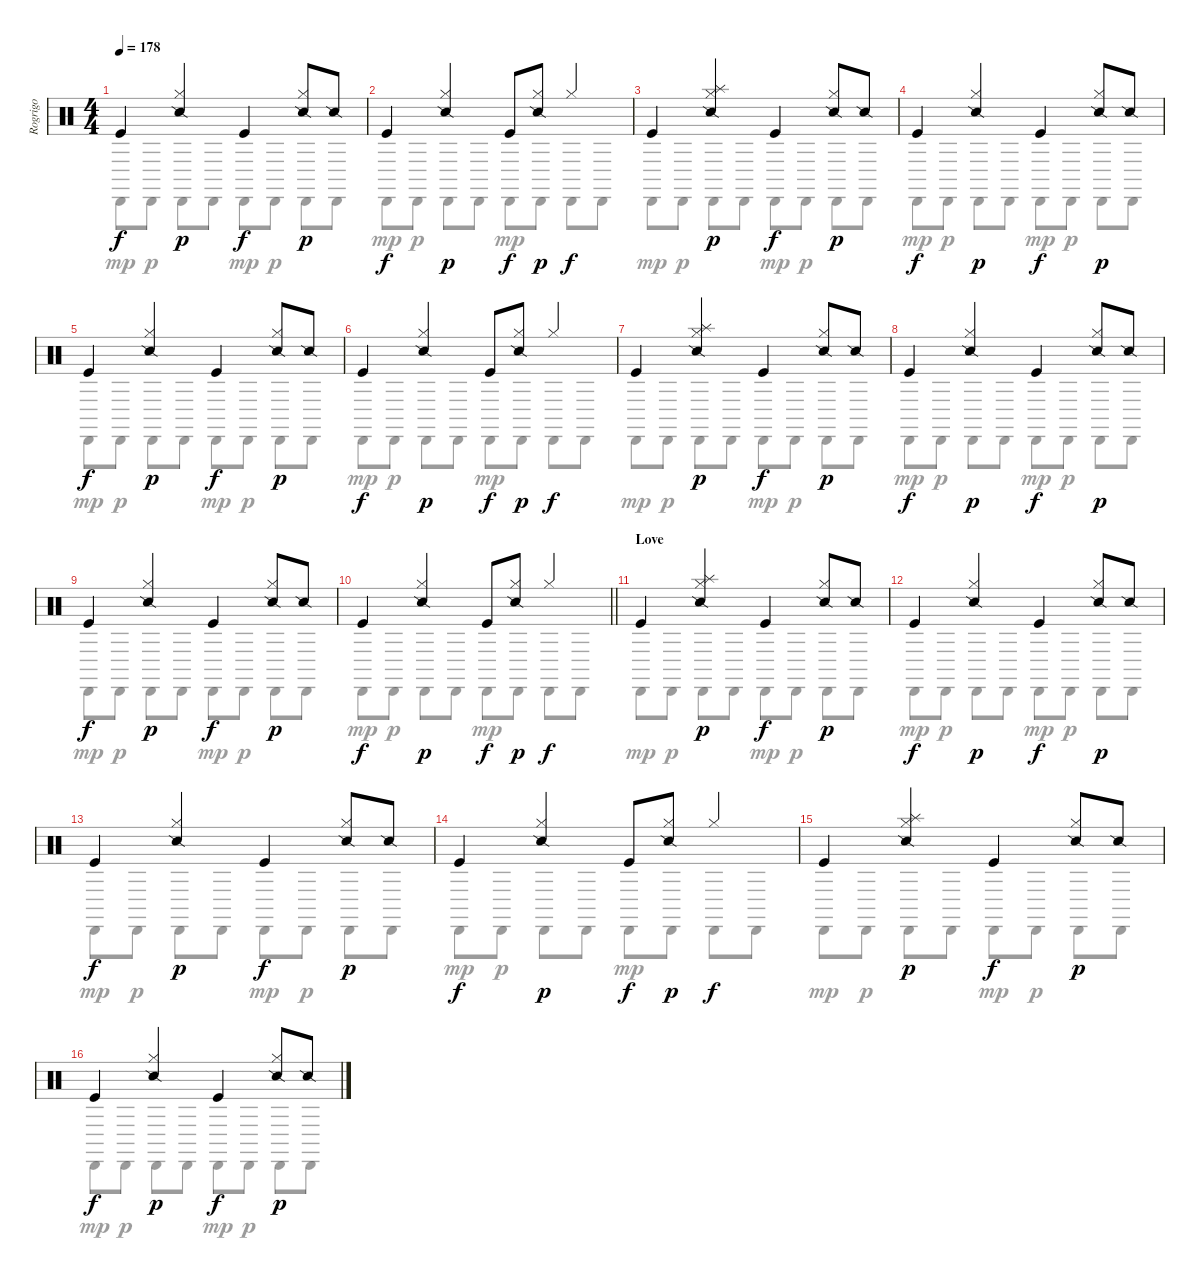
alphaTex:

\track ("Rogrigo" "Rogrigo") {instrument percussion}
\staff {score}
\articulation defaults
\voice
\ts (4 4)
\tempo 178
\clef neutral
\ks c "Kick (hit)".4{dy f}
("Hi-Hat (closed)" "Snare (side stick) 2").4{dy p} "Kick (hit)".4{dy f} ("Hi-Hat (closed)" "Snare (side stick) 2").8{dy p} "Snare (side stick) 2".8 |
"Kick (hit)".4{dy f} ("Hi-Hat (closed)" "Snare (side stick) 2").4{dy p} "Kick (hit)".8{dy f} ("Hi-Hat (closed)" "Snare (side stick) 2").8{dy p} "Hi-Hat (closed)".4{dy f} |
"Kick (hit)".4 ("Hi-Hat (closed)" "Splash (hit)" "Snare (side stick) 2").4{dy p} "Kick (hit)".4{dy f} ("Hi-Hat (closed)" "Snare (side stick) 2").8{dy p} "Snare (side stick) 2".8 |
"Kick (hit)".4{dy f} ("Hi-Hat (closed)" "Snare (side stick) 2").4{dy p} "Kick (hit)".4{dy f} ("Hi-Hat (closed)" "Snare (side stick) 2").8{dy p} "Snare (side stick) 2".8 |
"Kick (hit)".4{dy f} ("Hi-Hat (closed)" "Snare (side stick) 2").4{dy p} "Kick (hit)".4{dy f} ("Hi-Hat (closed)" "Snare (side stick) 2").8{dy p} "Snare (side stick) 2".8 |
"Kick (hit)".4{dy f} ("Hi-Hat (closed)" "Snare (side stick) 2").4{dy p} "Kick (hit)".8{dy f} ("Hi-Hat (closed)" "Snare (side stick) 2").8{dy p} "Hi-Hat (closed)".4{dy f} |
"Kick (hit)".4 ("Hi-Hat (closed)" "Splash (hit)" "Snare (side stick) 2").4{dy p} "Kick (hit)".4{dy f} ("Hi-Hat (closed)" "Snare (side stick) 2").8{dy p} "Snare (side stick) 2".8 |
"Kick (hit)".4{dy f} ("Hi-Hat (closed)" "Snare (side stick) 2").4{dy p} "Kick (hit)".4{dy f} ("Hi-Hat (closed)" "Snare (side stick) 2").8{dy p} "Snare (side stick) 2".8 |
"Kick (hit)".4{dy f} ("Hi-Hat (closed)" "Snare (side stick) 2").4{dy p} "Kick (hit)".4{dy f} ("Hi-Hat (closed)" "Snare (side stick) 2").8{dy p} "Snare (side stick) 2".8 |
\barLineRight lightlight "Kick (hit)".4{dy f}
("Hi-Hat (closed)" "Snare (side stick) 2").4{dy p} "Kick (hit)".8{dy f} ("Hi-Hat (closed)" "Snare (side stick) 2").8{dy p} "Hi-Hat (closed)".4{dy f} |
\section ("" "Love")
"Kick (hit)".4 ("Hi-Hat (closed)" "Splash (hit)" "Snare (side stick) 2").4{dy p} "Kick (hit)".4{dy f} ("Hi-Hat (closed)" "Snare (side stick) 2").8{dy p} "Snare (side stick) 2".8 |
"Kick (hit)".4{dy f} ("Hi-Hat (closed)" "Snare (side stick) 2").4{dy p} "Kick (hit)".4{dy f} ("Hi-Hat (closed)" "Snare (side stick) 2").8{dy p} "Snare (side stick) 2".8 |
"Kick (hit)".4{dy f} ("Hi-Hat (closed)" "Snare (side stick) 2").4{dy p} "Kick (hit)".4{dy f} ("Hi-Hat (closed)" "Snare (side stick) 2").8{dy p} "Snare (side stick) 2".8 |
"Kick (hit)".4{dy f} ("Hi-Hat (closed)" "Snare (side stick) 2").4{dy p} "Kick (hit)".8{dy f} ("Hi-Hat (closed)" "Snare (side stick) 2").8{dy p} "Hi-Hat (closed)".4{dy f} |
"Kick (hit)".4 ("Hi-Hat (closed)" "Splash (hit)" "Snare (side stick) 2").4{dy p} "Kick (hit)".4{dy f} ("Hi-Hat (closed)" "Snare (side stick) 2").8{dy p} "Snare (side stick) 2".8 |
"Kick (hit)".4{dy f} ("Hi-Hat (closed)" "Snare (side stick) 2").4{dy p} "Kick (hit)".4{dy f} ("Hi-Hat (closed)" "Snare (side stick) 2").8{dy p} "Snare (side stick) 2".8
\voice
\clef neutral
\ottava regular
\simile none
\ks c "Cabasa (hit)".8{dy mp} "Cabasa (hit)".8{dy p} "Cabasa (hit)".8 "Cabasa (hit)".8 "Cabasa (hit)".8{dy mp} "Cabasa (hit)".8{dy p} "Cabasa (hit)".8 "Cabasa (hit)".8
|
"Cabasa (hit)".8{dy mp} "Cabasa (hit)".8{dy p} "Cabasa (hit)".8 "Cabasa (hit)".8 "Cabasa (hit)".8{dy mp} "Cabasa (hit)".8{dy p} "Cabasa (hit)".8 "Cabasa (hit)".8 |
"Cabasa (hit)".8{dy mp} "Cabasa (hit)".8{dy p} "Cabasa (hit)".8 "Cabasa (hit)".8 "Cabasa (hit)".8{dy mp} "Cabasa (hit)".8{dy p} "Cabasa (hit)".8 "Cabasa (hit)".8 |
"Cabasa (hit)".8{dy mp} "Cabasa (hit)".8{dy p} "Cabasa (hit)".8 "Cabasa (hit)".8 "Cabasa (hit)".8{dy mp} "Cabasa (hit)".8{dy p} "Cabasa (hit)".8 "Cabasa (hit)".8 |
"Cabasa (hit)".8{dy mp} "Cabasa (hit)".8{dy p} "Cabasa (hit)".8 "Cabasa (hit)".8 "Cabasa (hit)".8{dy mp} "Cabasa (hit)".8{dy p} "Cabasa (hit)".8 "Cabasa (hit)".8 |
"Cabasa (hit)".8{dy mp} "Cabasa (hit)".8{dy p} "Cabasa (hit)".8 "Cabasa (hit)".8 "Cabasa (hit)".8{dy mp} "Cabasa (hit)".8{dy p} "Cabasa (hit)".8 "Cabasa (hit)".8 |
"Cabasa (hit)".8{dy mp} "Cabasa (hit)".8{dy p} "Cabasa (hit)".8 "Cabasa (hit)".8 "Cabasa (hit)".8{dy mp} "Cabasa (hit)".8{dy p} "Cabasa (hit)".8 "Cabasa (hit)".8 |
"Cabasa (hit)".8{dy mp} "Cabasa (hit)".8{dy p} "Cabasa (hit)".8 "Cabasa (hit)".8 "Cabasa (hit)".8{dy mp} "Cabasa (hit)".8{dy p} "Cabasa (hit)".8 "Cabasa (hit)".8 |
"Cabasa (hit)".8{dy mp} "Cabasa (hit)".8{dy p} "Cabasa (hit)".8 "Cabasa (hit)".8 "Cabasa (hit)".8{dy mp} "Cabasa (hit)".8{dy p} "Cabasa (hit)".8 "Cabasa (hit)".8 |
\barLineRight lightlight "Cabasa (hit)".8{dy mp} "Cabasa (hit)".8{dy p} "Cabasa (hit)".8 "Cabasa (hit)".8 "Cabasa (hit)".8{dy mp} "Cabasa (hit)".8{dy p} "Cabasa (hit)".8 "Cabasa (hit)".8
|
"Cabasa (hit)".8{dy mp} "Cabasa (hit)".8{dy p} "Cabasa (hit)".8 "Cabasa (hit)".8 "Cabasa (hit)".8{dy mp} "Cabasa (hit)".8{dy p} "Cabasa (hit)".8 "Cabasa (hit)".8 |
"Cabasa (hit)".8{dy mp} "Cabasa (hit)".8{dy p} "Cabasa (hit)".8 "Cabasa (hit)".8 "Cabasa (hit)".8{dy mp} "Cabasa (hit)".8{dy p} "Cabasa (hit)".8 "Cabasa (hit)".8 |
"Cabasa (hit)".8{dy mp} "Cabasa (hit)".8{dy p} "Cabasa (hit)".8 "Cabasa (hit)".8 "Cabasa (hit)".8{dy mp} "Cabasa (hit)".8{dy p} "Cabasa (hit)".8 "Cabasa (hit)".8 |
"Cabasa (hit)".8{dy mp} "Cabasa (hit)".8{dy p} "Cabasa (hit)".8 "Cabasa (hit)".8 "Cabasa (hit)".8{dy mp} "Cabasa (hit)".8{dy p} "Cabasa (hit)".8 "Cabasa (hit)".8 |
"Cabasa (hit)".8{dy mp} "Cabasa (hit)".8{dy p} "Cabasa (hit)".8 "Cabasa (hit)".8 "Cabasa (hit)".8{dy mp} "Cabasa (hit)".8{dy p} "Cabasa (hit)".8 "Cabasa (hit)".8 |
"Cabasa (hit)".8{dy mp} "Cabasa (hit)".8{dy p} "Cabasa (hit)".8 "Cabasa (hit)".8 "Cabasa (hit)".8{dy mp} "Cabasa (hit)".8{dy p} "Cabasa (hit)".8 "Cabasa (hit)".8
